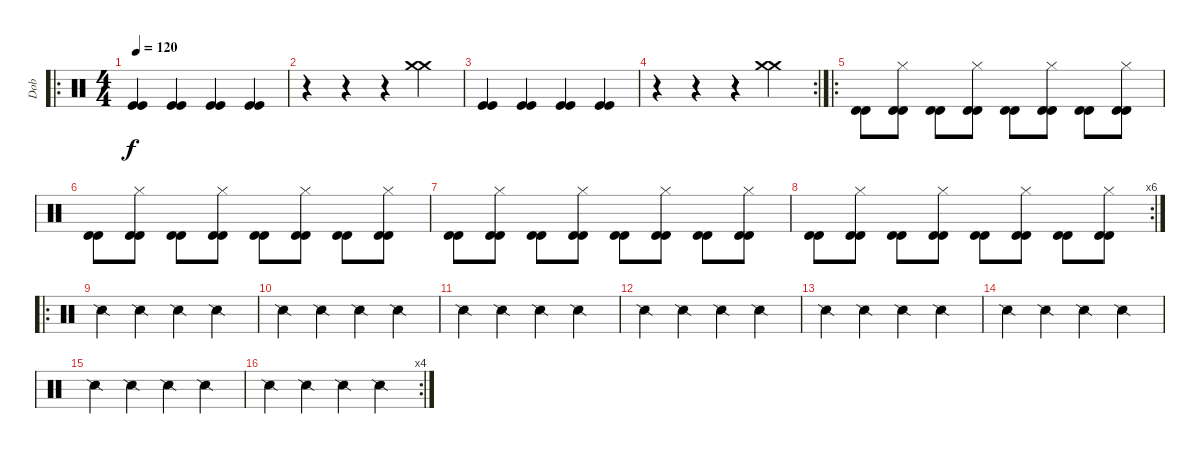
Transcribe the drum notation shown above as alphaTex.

\track ("Dob" "Dob") {instrument percussion}
\staff {score}
\articulation defaults
\ro
\ts (4 4)
\tempo 120
\clef neutral
\ks c
("Kick (hit)" "Kick (hit)").4{dy f} ("Kick (hit)" "Kick (hit)").4 ("Kick (hit)" "Kick (hit)").4 ("Kick (hit)" "Kick (hit)").4 |
r.4 r.4 r.4 ("Crash medium (hit)" "Crash medium (hit)").4 |
("Kick (hit)" "Kick (hit)").4 ("Kick (hit)" "Kick (hit)").4 ("Kick (hit)" "Kick (hit)").4 ("Kick (hit)" "Kick (hit)").4 |
\rc 2
r.4 r.4 r.4 ("Crash medium (hit)" "Crash medium (hit)").4 |
\ro
("Timbale high (hit)" "Timbale high (hit)").8 ("Hi-Hat (closed)" "Timbale high (hit)" "Timbale high (hit)").8 ("Timbale high (hit)" "Timbale high (hit)").8 ("Hi-Hat (closed)" "Timbale high (hit)" "Timbale high (hit)").8 ("Timbale high (hit)" "Timbale high (hit)").8 ("Hi-Hat (closed)" "Timbale high (hit)" "Timbale high (hit)").8 ("Timbale high (hit)" "Timbale high (hit)").8 ("Hi-Hat (closed)" "Timbale high (hit)" "Timbale high (hit)").8 |
("Timbale high (hit)" "Timbale high (hit)").8 ("Hi-Hat (closed)" "Timbale high (hit)" "Timbale high (hit)").8 ("Timbale high (hit)" "Timbale high (hit)").8 ("Hi-Hat (closed)" "Timbale high (hit)" "Timbale high (hit)").8 ("Timbale high (hit)" "Timbale high (hit)").8 ("Hi-Hat (closed)" "Timbale high (hit)" "Timbale high (hit)").8 ("Timbale high (hit)" "Timbale high (hit)").8 ("Hi-Hat (closed)" "Timbale high (hit)" "Timbale high (hit)").8 |
("Timbale high (hit)" "Timbale high (hit)").8 ("Hi-Hat (closed)" "Timbale high (hit)" "Timbale high (hit)").8 ("Timbale high (hit)" "Timbale high (hit)").8 ("Hi-Hat (closed)" "Timbale high (hit)" "Timbale high (hit)").8 ("Timbale high (hit)" "Timbale high (hit)").8 ("Hi-Hat (closed)" "Timbale high (hit)" "Timbale high (hit)").8 ("Timbale high (hit)" "Timbale high (hit)").8 ("Hi-Hat (closed)" "Timbale high (hit)" "Timbale high (hit)").8 |
\rc 6
("Timbale high (hit)" "Timbale high (hit)").8 ("Hi-Hat (closed)" "Timbale high (hit)" "Timbale high (hit)").8 ("Timbale high (hit)" "Timbale high (hit)").8 ("Hi-Hat (closed)" "Timbale high (hit)" "Timbale high (hit)").8 ("Timbale high (hit)" "Timbale high (hit)").8 ("Hi-Hat (closed)" "Timbale high (hit)" "Timbale high (hit)").8 ("Timbale high (hit)" "Timbale high (hit)").8 ("Hi-Hat (closed)" "Timbale high (hit)" "Timbale high (hit)").8 |
\ro "Snare (side stick) 2".4 "Snare (side stick) 2".4 "Snare (side stick) 2".4 "Snare (side stick) 2".4
|
"Snare (side stick) 2".4 "Snare (side stick) 2".4 "Snare (side stick) 2".4 "Snare (side stick) 2".4 |
"Snare (side stick) 2".4 "Snare (side stick) 2".4 "Snare (side stick) 2".4 "Snare (side stick) 2".4 |
"Snare (side stick) 2".4 "Snare (side stick) 2".4 "Snare (side stick) 2".4 "Snare (side stick) 2".4 |
"Snare (side stick) 2".4 "Snare (side stick) 2".4 "Snare (side stick) 2".4 "Snare (side stick) 2".4 |
"Snare (side stick) 2".4 "Snare (side stick) 2".4 "Snare (side stick) 2".4 "Snare (side stick) 2".4 |
"Snare (side stick) 2".4 "Snare (side stick) 2".4 "Snare (side stick) 2".4 "Snare (side stick) 2".4 |
\rc 4 "Snare (side stick) 2".4 "Snare (side stick) 2".4 "Snare (side stick) 2".4 "Snare (side stick) 2".4
